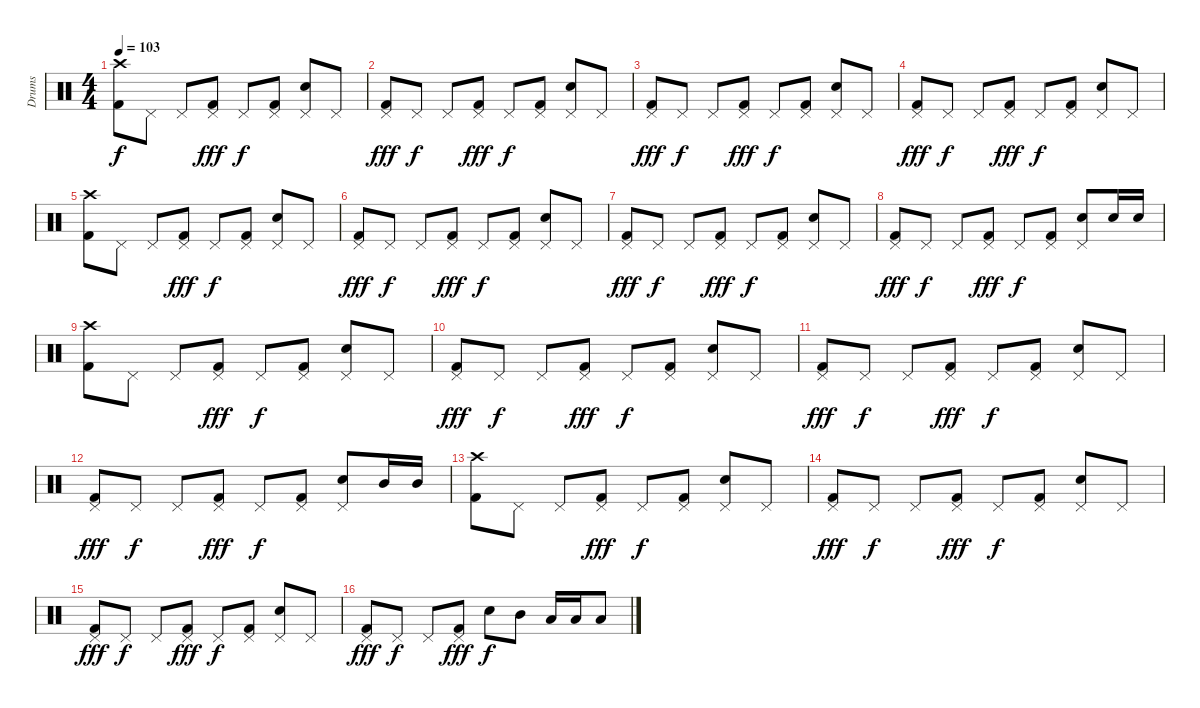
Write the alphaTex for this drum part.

\track ("Drums" "Drums") {instrument percussion}
\staff {score}
\articulation defaults
\ts (4 4)
\tempo 103
\clef neutral
\ks c
("Crash high (hit)" "Kick (hit) 2").8{dy f} "Pedal Hi-Hat (hit)".8 "Pedal Hi-Hat (hit)".8 ("Pedal Hi-Hat (hit)" "Kick (hit) 2").8{dy fff} "Pedal Hi-Hat (hit)".8{dy f} ("Pedal Hi-Hat (hit)" "Kick (hit) 2").8 ("Pedal Hi-Hat (hit)" "Electric Snare (hit)").8 "Pedal Hi-Hat (hit)".8 |
("Pedal Hi-Hat (hit)" "Kick (hit) 2").8{dy fff} "Pedal Hi-Hat (hit)".8{dy f} "Pedal Hi-Hat (hit)".8 ("Pedal Hi-Hat (hit)" "Kick (hit) 2").8{dy fff} "Pedal Hi-Hat (hit)".8{dy f} ("Pedal Hi-Hat (hit)" "Kick (hit) 2").8 ("Pedal Hi-Hat (hit)" "Electric Snare (hit)").8 "Pedal Hi-Hat (hit)".8 |
("Pedal Hi-Hat (hit)" "Kick (hit) 2").8{dy fff} "Pedal Hi-Hat (hit)".8{dy f} "Pedal Hi-Hat (hit)".8 ("Pedal Hi-Hat (hit)" "Kick (hit) 2").8{dy fff} "Pedal Hi-Hat (hit)".8{dy f} ("Pedal Hi-Hat (hit)" "Kick (hit) 2").8 ("Pedal Hi-Hat (hit)" "Electric Snare (hit)").8 "Pedal Hi-Hat (hit)".8 |
("Pedal Hi-Hat (hit)" "Kick (hit) 2").8{dy fff} "Pedal Hi-Hat (hit)".8{dy f} "Pedal Hi-Hat (hit)".8 ("Pedal Hi-Hat (hit)" "Kick (hit) 2").8{dy fff} "Pedal Hi-Hat (hit)".8{dy f} ("Pedal Hi-Hat (hit)" "Kick (hit) 2").8 ("Pedal Hi-Hat (hit)" "Electric Snare (hit)").8 "Pedal Hi-Hat (hit)".8 |
("Crash high (hit)" "Kick (hit) 2").8 "Pedal Hi-Hat (hit)".8 "Pedal Hi-Hat (hit)".8 ("Pedal Hi-Hat (hit)" "Kick (hit) 2").8{dy fff} "Pedal Hi-Hat (hit)".8{dy f} ("Pedal Hi-Hat (hit)" "Kick (hit) 2").8 ("Pedal Hi-Hat (hit)" "Electric Snare (hit)").8 "Pedal Hi-Hat (hit)".8 |
("Pedal Hi-Hat (hit)" "Kick (hit) 2").8{dy fff} "Pedal Hi-Hat (hit)".8{dy f} "Pedal Hi-Hat (hit)".8 ("Pedal Hi-Hat (hit)" "Kick (hit) 2").8{dy fff} "Pedal Hi-Hat (hit)".8{dy f} ("Pedal Hi-Hat (hit)" "Kick (hit) 2").8 ("Pedal Hi-Hat (hit)" "Electric Snare (hit)").8 "Pedal Hi-Hat (hit)".8 |
("Pedal Hi-Hat (hit)" "Kick (hit) 2").8{dy fff} "Pedal Hi-Hat (hit)".8{dy f} "Pedal Hi-Hat (hit)".8 ("Pedal Hi-Hat (hit)" "Kick (hit) 2").8{dy fff} "Pedal Hi-Hat (hit)".8{dy f} ("Pedal Hi-Hat (hit)" "Kick (hit) 2").8 ("Pedal Hi-Hat (hit)" "Electric Snare (hit)").8 "Pedal Hi-Hat (hit)".8 |
("Pedal Hi-Hat (hit)" "Kick (hit) 2").8{dy fff} "Pedal Hi-Hat (hit)".8{dy f} "Pedal Hi-Hat (hit)".8 ("Pedal Hi-Hat (hit)" "Kick (hit) 2").8{dy fff} "Pedal Hi-Hat (hit)".8{dy f} ("Pedal Hi-Hat (hit)" "Kick (hit) 2").8 ("Pedal Hi-Hat (hit)" "Electric Snare (hit)").8 "Electric Snare (hit)".16 "Electric Snare (hit)".16 |
("Crash high (hit)" "Kick (hit) 2").8 "Pedal Hi-Hat (hit)".8 "Pedal Hi-Hat (hit)".8 ("Pedal Hi-Hat (hit)" "Kick (hit) 2").8{dy fff} "Pedal Hi-Hat (hit)".8{dy f} ("Pedal Hi-Hat (hit)" "Kick (hit) 2").8 ("Pedal Hi-Hat (hit)" "Electric Snare (hit)").8 "Pedal Hi-Hat (hit)".8 |
("Pedal Hi-Hat (hit)" "Kick (hit) 2").8{dy fff} "Pedal Hi-Hat (hit)".8{dy f} "Pedal Hi-Hat (hit)".8 ("Pedal Hi-Hat (hit)" "Kick (hit) 2").8{dy fff} "Pedal Hi-Hat (hit)".8{dy f} ("Pedal Hi-Hat (hit)" "Kick (hit) 2").8 ("Pedal Hi-Hat (hit)" "Electric Snare (hit)").8 "Pedal Hi-Hat (hit)".8 |
("Pedal Hi-Hat (hit)" "Kick (hit) 2").8{dy fff} "Pedal Hi-Hat (hit)".8{dy f} "Pedal Hi-Hat (hit)".8 ("Pedal Hi-Hat (hit)" "Kick (hit) 2").8{dy fff} "Pedal Hi-Hat (hit)".8{dy f} ("Pedal Hi-Hat (hit)" "Kick (hit) 2").8 ("Pedal Hi-Hat (hit)" "Electric Snare (hit)").8 "Pedal Hi-Hat (hit)".8 |
("Pedal Hi-Hat (hit)" "Kick (hit) 2").8{dy fff} "Pedal Hi-Hat (hit)".8{dy f} "Pedal Hi-Hat (hit)".8 ("Pedal Hi-Hat (hit)" "Kick (hit) 2").8{dy fff} "Pedal Hi-Hat (hit)".8{dy f} ("Pedal Hi-Hat (hit)" "Kick (hit) 2").8 ("Pedal Hi-Hat (hit)" "Electric Snare (hit)").8 "Mid Tom (hit)".16 "Mid Tom (hit)".16 |
("Crash high (hit)" "Kick (hit) 2").8 "Pedal Hi-Hat (hit)".8 "Pedal Hi-Hat (hit)".8 ("Pedal Hi-Hat (hit)" "Kick (hit) 2").8{dy fff} "Pedal Hi-Hat (hit)".8{dy f} ("Pedal Hi-Hat (hit)" "Kick (hit) 2").8 ("Pedal Hi-Hat (hit)" "Electric Snare (hit)").8 "Pedal Hi-Hat (hit)".8 |
("Pedal Hi-Hat (hit)" "Kick (hit) 2").8{dy fff} "Pedal Hi-Hat (hit)".8{dy f} "Pedal Hi-Hat (hit)".8 ("Pedal Hi-Hat (hit)" "Kick (hit) 2").8{dy fff} "Pedal Hi-Hat (hit)".8{dy f} ("Pedal Hi-Hat (hit)" "Kick (hit) 2").8 ("Pedal Hi-Hat (hit)" "Electric Snare (hit)").8 "Pedal Hi-Hat (hit)".8 |
("Pedal Hi-Hat (hit)" "Kick (hit) 2").8{dy fff} "Pedal Hi-Hat (hit)".8{dy f} "Pedal Hi-Hat (hit)".8 ("Pedal Hi-Hat (hit)" "Kick (hit) 2").8{dy fff} "Pedal Hi-Hat (hit)".8{dy f} ("Pedal Hi-Hat (hit)" "Kick (hit) 2").8 ("Pedal Hi-Hat (hit)" "Electric Snare (hit)").8 "Pedal Hi-Hat (hit)".8 |
("Pedal Hi-Hat (hit)" "Kick (hit) 2").8{dy fff} "Pedal Hi-Hat (hit)".8{dy f} "Pedal Hi-Hat (hit)".8 ("Pedal Hi-Hat (hit)" "Kick (hit) 2").8{dy fff} "Electric Snare (hit)".8{dy f} "Mid Tom (hit)".8 "Low Tom (hit)".16 "Low Tom (hit)".16 "Low Tom (hit)".8
